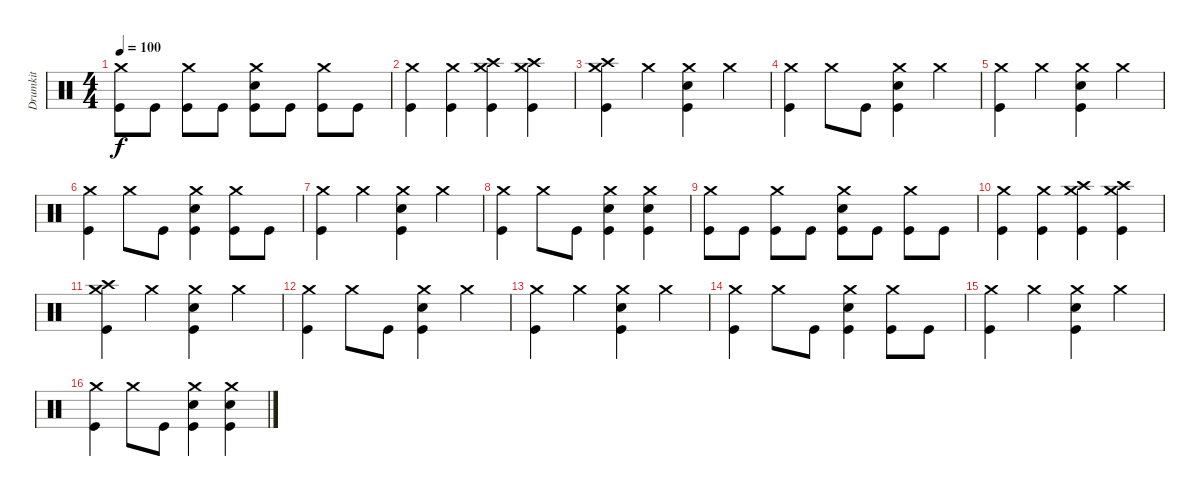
\track ("Drumkit" "Drumkit") {instrument percussion}
\staff {score}
\articulation defaults
\ts (4 4)
\tempo 100
\clef neutral
\ks c
("Crash medium (hit)" "Kick (hit)").8{dy f} "Kick (hit)".8 ("Crash medium (hit)" "Kick (hit)").8 "Kick (hit)".8 ("Crash medium (hit)" "Snare (hit) 2" "Kick (hit)").8 "Kick (hit)".8 ("Crash medium (hit)" "Kick (hit)").8 "Kick (hit)".8 |
("Crash medium (hit)" "Kick (hit)").4 ("Crash medium (hit)" "Kick (hit)").4 ("Crash medium (hit)" "Crash high (hit)" "Kick (hit)").4 ("Crash high (hit)" "Crash medium (hit)" "Kick (hit)").4 |
("Crash medium (hit)" "Crash high (hit)" "Kick (hit)").4 "Crash medium (hit)".4 ("Crash medium (hit)" "Snare (hit) 2" "Kick (hit)").4 "Crash medium (hit)".4 |
("Crash medium (hit)" "Kick (hit)").4 "Crash medium (hit)".8 "Kick (hit)".8 ("Crash medium (hit)" "Snare (hit) 2" "Kick (hit)").4 "Crash medium (hit)".4 |
("Crash medium (hit)" "Kick (hit)").4 "Crash medium (hit)".4 ("Crash medium (hit)" "Snare (hit) 2" "Kick (hit)").4 "Crash medium (hit)".4 |
("Crash medium (hit)" "Kick (hit)").4 "Crash medium (hit)".8 "Kick (hit)".8 ("Crash medium (hit)" "Snare (hit) 2" "Kick (hit)").4 ("Crash medium (hit)" "Kick (hit)").8 "Kick (hit)".8 |
("Crash medium (hit)" "Kick (hit)").4 "Crash medium (hit)".4 ("Crash medium (hit)" "Snare (hit) 2" "Kick (hit)").4 "Crash medium (hit)".4 |
("Crash medium (hit)" "Kick (hit)").4 "Crash medium (hit)".8 "Kick (hit)".8 ("Crash medium (hit)" "Snare (hit) 2" "Kick (hit)").4 ("Crash medium (hit)" "Snare (hit) 2" "Kick (hit)").4 |
("Crash medium (hit)" "Kick (hit)").8 "Kick (hit)".8 ("Crash medium (hit)" "Kick (hit)").8 "Kick (hit)".8 ("Crash medium (hit)" "Snare (hit) 2" "Kick (hit)").8 "Kick (hit)".8 ("Crash medium (hit)" "Kick (hit)").8 "Kick (hit)".8 |
("Crash medium (hit)" "Kick (hit)").4 ("Crash medium (hit)" "Kick (hit)").4 ("Crash medium (hit)" "Crash high (hit)" "Kick (hit)").4 ("Crash high (hit)" "Crash medium (hit)" "Kick (hit)").4 |
("Crash medium (hit)" "Crash high (hit)" "Kick (hit)").4 "Crash medium (hit)".4 ("Crash medium (hit)" "Snare (hit) 2" "Kick (hit)").4 "Crash medium (hit)".4 |
("Crash medium (hit)" "Kick (hit)").4 "Crash medium (hit)".8 "Kick (hit)".8 ("Crash medium (hit)" "Snare (hit) 2" "Kick (hit)").4 "Crash medium (hit)".4 |
("Crash medium (hit)" "Kick (hit)").4 "Crash medium (hit)".4 ("Crash medium (hit)" "Snare (hit) 2" "Kick (hit)").4 "Crash medium (hit)".4 |
("Crash medium (hit)" "Kick (hit)").4 "Crash medium (hit)".8 "Kick (hit)".8 ("Crash medium (hit)" "Snare (hit) 2" "Kick (hit)").4 ("Crash medium (hit)" "Kick (hit)").8 "Kick (hit)".8 |
("Crash medium (hit)" "Kick (hit)").4 "Crash medium (hit)".4 ("Crash medium (hit)" "Snare (hit) 2" "Kick (hit)").4 "Crash medium (hit)".4 |
("Crash medium (hit)" "Kick (hit)").4 "Crash medium (hit)".8 "Kick (hit)".8 ("Crash medium (hit)" "Snare (hit) 2" "Kick (hit)").4 ("Crash medium (hit)" "Snare (hit) 2" "Kick (hit)").4
